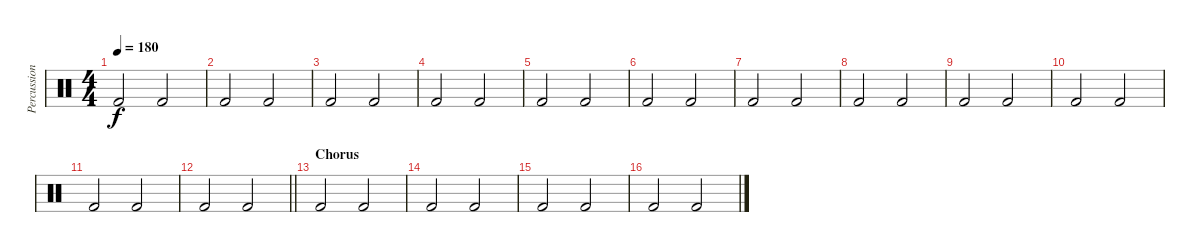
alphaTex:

\track ("Percussion" "Percussion") {instrument percussion}
\staff {score}
\articulation defaults
\ts (4 4)
\tempo 180
\clef neutral
\ks c "Kick (hit) 2".2{dy f} "Kick (hit) 2".2
|
"Kick (hit) 2".2 "Kick (hit) 2".2 |
"Kick (hit) 2".2 "Kick (hit) 2".2 |
"Kick (hit) 2".2 "Kick (hit) 2".2 |
"Kick (hit) 2".2 "Kick (hit) 2".2 |
"Kick (hit) 2".2 "Kick (hit) 2".2 |
"Kick (hit) 2".2 "Kick (hit) 2".2 |
"Kick (hit) 2".2 "Kick (hit) 2".2 |
"Kick (hit) 2".2 "Kick (hit) 2".2 |
"Kick (hit) 2".2 "Kick (hit) 2".2 |
"Kick (hit) 2".2 "Kick (hit) 2".2 |
\barLineRight lightlight "Kick (hit) 2".2 "Kick (hit) 2".2
|
\section ("" "Chorus")
"Kick (hit) 2".2 "Kick (hit) 2".2 |
"Kick (hit) 2".2 "Kick (hit) 2".2 |
"Kick (hit) 2".2 "Kick (hit) 2".2 |
"Kick (hit) 2".2 "Kick (hit) 2".2
